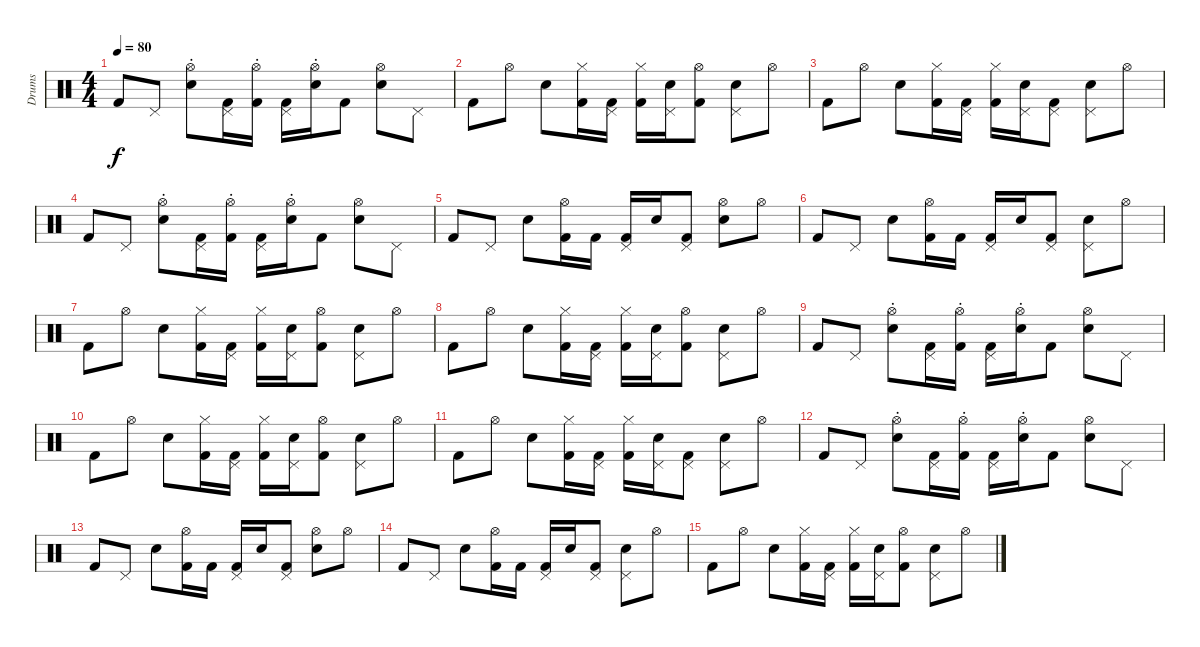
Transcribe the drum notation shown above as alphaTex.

\track ("Drums" "Drums") {instrument percussion}
\staff {score}
\articulation defaults
\ts (4 4)
\tempo 80
\clef neutral
\ks c "Kick (hit) 2".8{dy f} "Pedal Hi-Hat (hit)".8
("Hi-Hat (open)"{st} "Snare (hit) 2").8 ("Pedal Hi-Hat (hit)" "Kick (hit) 2").16 ("Hi-Hat (open)"{st} "Kick (hit) 2").16 ("Pedal Hi-Hat (hit)" "Kick (hit) 2").16 ("Hi-Hat (open)"{st} "Snare (hit) 2").16 "Kick (hit) 2".8 ("Hi-Hat (open)" "Snare (hit) 2").8 "Pedal Hi-Hat (hit)".8 |
"Kick (hit) 2".8 "Hi-Hat (open)".8 "Snare (hit) 2".8 ("Hi-Hat (closed)" "Kick (hit) 2").16 ("Pedal Hi-Hat (hit)" "Kick (hit) 2").16 ("Hi-Hat (closed)" "Kick (hit) 2").16 ("Pedal Hi-Hat (hit)" "Snare (hit) 2").16 ("Hi-Hat (open)" "Kick (hit) 2").8 ("Pedal Hi-Hat (hit)" "Snare (hit) 2").8 "Hi-Hat (open)".8 |
"Kick (hit) 2".8 "Hi-Hat (open)".8 "Snare (hit) 2".8 ("Hi-Hat (closed)" "Kick (hit) 2").16 ("Pedal Hi-Hat (hit)" "Kick (hit) 2").16 ("Hi-Hat (closed)" "Kick (hit) 2").16 ("Pedal Hi-Hat (hit)" "Snare (hit) 2").16 ("Pedal Hi-Hat (hit)" "Kick (hit) 2").8 ("Pedal Hi-Hat (hit)" "Snare (hit) 2").8 "Hi-Hat (open)".8 |
"Kick (hit) 2".8 "Pedal Hi-Hat (hit)".8 ("Hi-Hat (open)"{st} "Snare (hit) 2").8 ("Pedal Hi-Hat (hit)" "Kick (hit) 2").16 ("Hi-Hat (open)"{st} "Kick (hit) 2").16 ("Pedal Hi-Hat (hit)" "Kick (hit) 2").16 ("Hi-Hat (open)"{st} "Snare (hit) 2").16 "Kick (hit) 2".8 ("Hi-Hat (open)" "Snare (hit) 2").8 "Pedal Hi-Hat (hit)".8 |
"Kick (hit) 2".8 "Pedal Hi-Hat (hit)".8 "Snare (hit) 2".8 ("Hi-Hat (open)" "Kick (hit) 2").16 "Kick (hit) 2".16 ("Pedal Hi-Hat (hit)" "Kick (hit) 2").16 "Snare (hit) 2".16 ("Pedal Hi-Hat (hit)" "Kick (hit) 2").8 ("Hi-Hat (open)" "Snare (hit) 2").8 "Hi-Hat (open)".8 |
"Kick (hit) 2".8 "Pedal Hi-Hat (hit)".8 "Snare (hit) 2".8 ("Hi-Hat (open)" "Kick (hit) 2").16 "Kick (hit) 2".16 ("Pedal Hi-Hat (hit)" "Kick (hit) 2").16 "Snare (hit) 2".16 ("Pedal Hi-Hat (hit)" "Kick (hit) 2").8 ("Pedal Hi-Hat (hit)" "Snare (hit) 2").8 "Hi-Hat (open)".8 |
"Kick (hit) 2".8 "Hi-Hat (open)".8 "Snare (hit) 2".8 ("Hi-Hat (closed)" "Kick (hit) 2").16 ("Pedal Hi-Hat (hit)" "Kick (hit) 2").16 ("Hi-Hat (closed)" "Kick (hit) 2").16 ("Pedal Hi-Hat (hit)" "Snare (hit) 2").16 ("Hi-Hat (open)" "Kick (hit) 2").8 ("Pedal Hi-Hat (hit)" "Snare (hit) 2").8 "Hi-Hat (open)".8 |
"Kick (hit) 2".8 "Hi-Hat (open)".8 "Snare (hit) 2".8 ("Hi-Hat (closed)" "Kick (hit) 2").16 ("Pedal Hi-Hat (hit)" "Kick (hit) 2").16 ("Hi-Hat (closed)" "Kick (hit) 2").16 ("Pedal Hi-Hat (hit)" "Snare (hit) 2").16 ("Hi-Hat (open)" "Kick (hit) 2").8 ("Pedal Hi-Hat (hit)" "Snare (hit) 2").8 "Hi-Hat (open)".8 |
"Kick (hit) 2".8 "Pedal Hi-Hat (hit)".8 ("Hi-Hat (open)"{st} "Snare (hit) 2").8 ("Pedal Hi-Hat (hit)" "Kick (hit) 2").16 ("Hi-Hat (open)"{st} "Kick (hit) 2").16 ("Pedal Hi-Hat (hit)" "Kick (hit) 2").16 ("Hi-Hat (open)"{st} "Snare (hit) 2").16 "Kick (hit) 2".8 ("Hi-Hat (open)" "Snare (hit) 2").8 "Pedal Hi-Hat (hit)".8 |
"Kick (hit) 2".8 "Hi-Hat (open)".8 "Snare (hit) 2".8 ("Hi-Hat (closed)" "Kick (hit) 2").16 ("Pedal Hi-Hat (hit)" "Kick (hit) 2").16 ("Hi-Hat (closed)" "Kick (hit) 2").16 ("Pedal Hi-Hat (hit)" "Snare (hit) 2").16 ("Hi-Hat (open)" "Kick (hit) 2").8 ("Pedal Hi-Hat (hit)" "Snare (hit) 2").8 "Hi-Hat (open)".8 |
"Kick (hit) 2".8 "Hi-Hat (open)".8 "Snare (hit) 2".8 ("Hi-Hat (closed)" "Kick (hit) 2").16 ("Pedal Hi-Hat (hit)" "Kick (hit) 2").16 ("Hi-Hat (closed)" "Kick (hit) 2").16 ("Pedal Hi-Hat (hit)" "Snare (hit) 2").16 ("Pedal Hi-Hat (hit)" "Kick (hit) 2").8 ("Pedal Hi-Hat (hit)" "Snare (hit) 2").8 "Hi-Hat (open)".8 |
"Kick (hit) 2".8 "Pedal Hi-Hat (hit)".8 ("Hi-Hat (open)"{st} "Snare (hit) 2").8 ("Pedal Hi-Hat (hit)" "Kick (hit) 2").16 ("Hi-Hat (open)"{st} "Kick (hit) 2").16 ("Pedal Hi-Hat (hit)" "Kick (hit) 2").16 ("Hi-Hat (open)"{st} "Snare (hit) 2").16 "Kick (hit) 2".8 ("Hi-Hat (open)" "Snare (hit) 2").8 "Pedal Hi-Hat (hit)".8 |
"Kick (hit) 2".8 "Pedal Hi-Hat (hit)".8 "Snare (hit) 2".8 ("Hi-Hat (open)" "Kick (hit) 2").16 "Kick (hit) 2".16 ("Pedal Hi-Hat (hit)" "Kick (hit) 2").16 "Snare (hit) 2".16 ("Pedal Hi-Hat (hit)" "Kick (hit) 2").8 ("Hi-Hat (open)" "Snare (hit) 2").8 "Hi-Hat (open)".8 |
"Kick (hit) 2".8 "Pedal Hi-Hat (hit)".8 "Snare (hit) 2".8 ("Hi-Hat (open)" "Kick (hit) 2").16 "Kick (hit) 2".16 ("Pedal Hi-Hat (hit)" "Kick (hit) 2").16 "Snare (hit) 2".16 ("Pedal Hi-Hat (hit)" "Kick (hit) 2").8 ("Pedal Hi-Hat (hit)" "Snare (hit) 2").8 "Hi-Hat (open)".8 |
"Kick (hit) 2".8 "Hi-Hat (open)".8 "Snare (hit) 2".8 ("Hi-Hat (closed)" "Kick (hit) 2").16 ("Pedal Hi-Hat (hit)" "Kick (hit) 2").16 ("Hi-Hat (closed)" "Kick (hit) 2").16 ("Pedal Hi-Hat (hit)" "Snare (hit) 2").16 ("Hi-Hat (open)" "Kick (hit) 2").8 ("Pedal Hi-Hat (hit)" "Snare (hit) 2").8 "Hi-Hat (open)".8
